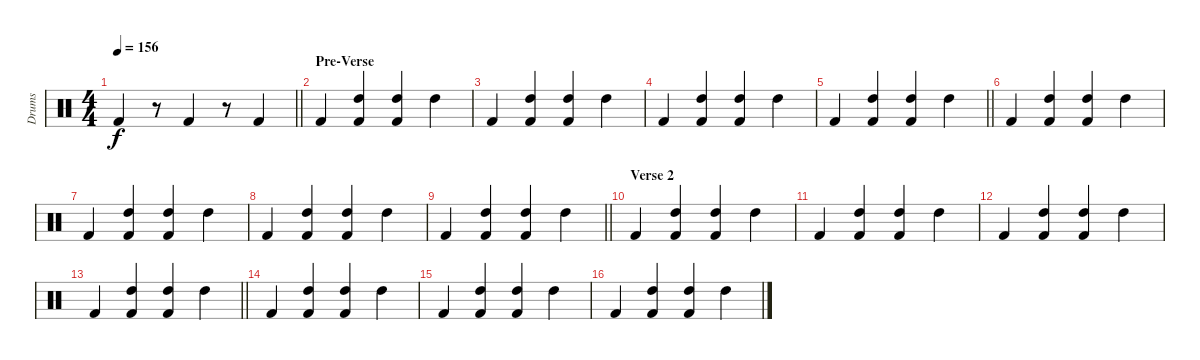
\track ("Drums" "Drums") {instrument percussion}
\staff
\articulation defaults
\ts (4 4)
\tempo 156
\clef neutral
\barLineRight lightlight
\ks c "Kick (hit) 2".4{dy f}
r.8 "Kick (hit) 2".4 r.8 "Kick (hit) 2".4 |
\section ("" "Pre-Verse")
"Kick (hit) 2".4 ("High Tom (hit)" "Kick (hit) 2").4 ("High Tom (hit)" "Kick (hit) 2").4 "High Tom (hit)".4 |
"Kick (hit) 2".4 ("High Tom (hit)" "Kick (hit) 2").4 ("High Tom (hit)" "Kick (hit) 2").4 "High Tom (hit)".4 |
"Kick (hit) 2".4 ("High Tom (hit)" "Kick (hit) 2").4 ("High Tom (hit)" "Kick (hit) 2").4 "High Tom (hit)".4 |
\barLineRight lightlight "Kick (hit) 2".4
("High Tom (hit)" "Kick (hit) 2").4 ("High Tom (hit)" "Kick (hit) 2").4 "High Tom (hit)".4 |
"Kick (hit) 2".4 ("High Tom (hit)" "Kick (hit) 2").4 ("High Tom (hit)" "Kick (hit) 2").4 "High Tom (hit)".4 |
"Kick (hit) 2".4 ("High Tom (hit)" "Kick (hit) 2").4 ("High Tom (hit)" "Kick (hit) 2").4 "High Tom (hit)".4 |
"Kick (hit) 2".4 ("High Tom (hit)" "Kick (hit) 2").4 ("High Tom (hit)" "Kick (hit) 2").4 "High Tom (hit)".4 |
\barLineRight lightlight "Kick (hit) 2".4
("High Tom (hit)" "Kick (hit) 2").4 ("High Tom (hit)" "Kick (hit) 2").4 "High Tom (hit)".4 |
\section ("" "Verse 2")
"Kick (hit) 2".4 ("High Tom (hit)" "Kick (hit) 2").4 ("High Tom (hit)" "Kick (hit) 2").4 "High Tom (hit)".4 |
"Kick (hit) 2".4 ("High Tom (hit)" "Kick (hit) 2").4 ("High Tom (hit)" "Kick (hit) 2").4 "High Tom (hit)".4 |
"Kick (hit) 2".4 ("High Tom (hit)" "Kick (hit) 2").4 ("High Tom (hit)" "Kick (hit) 2").4 "High Tom (hit)".4 |
\barLineRight lightlight "Kick (hit) 2".4
("High Tom (hit)" "Kick (hit) 2").4 ("High Tom (hit)" "Kick (hit) 2").4 "High Tom (hit)".4 |
"Kick (hit) 2".4 ("High Tom (hit)" "Kick (hit) 2").4 ("High Tom (hit)" "Kick (hit) 2").4 "High Tom (hit)".4 |
"Kick (hit) 2".4 ("High Tom (hit)" "Kick (hit) 2").4 ("High Tom (hit)" "Kick (hit) 2").4 "High Tom (hit)".4 |
"Kick (hit) 2".4 ("High Tom (hit)" "Kick (hit) 2").4 ("High Tom (hit)" "Kick (hit) 2").4 "High Tom (hit)".4
